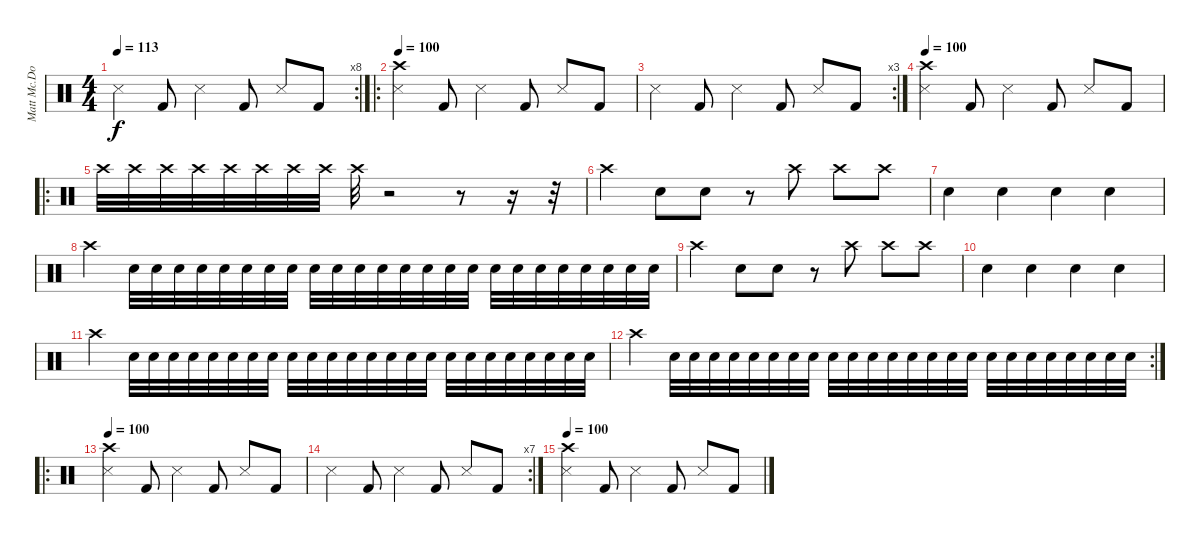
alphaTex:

\track ("Matt Mc.Donough" "Matt Mc.Do") {instrument percussion}
\staff {score}
\articulation defaults
\rc 8
\ts (4 4)
\tempo 113
\clef neutral
\ks c "Snare (side stick) 3".4{dy f} "Kick (hit) 2".8 "Snare (side stick) 3".4 "Kick (hit) 2".8 "Snare (side stick) 3".8 "Kick (hit) 2".8
|
\ro
\tempo 100
("Crash high (hit)" "Snare (side stick) 3").4 "Kick (hit) 2".8 "Snare (side stick) 3".4 "Kick (hit) 2".8 "Snare (side stick) 3".8 "Kick (hit) 2".8 |
\rc 3 "Snare (side stick) 3".4 "Kick (hit) 2".8 "Snare (side stick) 3".4 "Kick (hit) 2".8 "Snare (side stick) 3".8 "Kick (hit) 2".8
|
\tempo 100
("Crash high (hit)" "Snare (side stick) 3").4 "Kick (hit) 2".8 "Snare (side stick) 3".4 "Kick (hit) 2".8 "Snare (side stick) 3".8 "Kick (hit) 2".8 |
\ro "Crash high (hit)".32 "Crash high (hit)".32 "Crash high (hit)".32 "Crash high (hit)".32 "Crash high (hit)".32 "Crash high (hit)".32 "Crash high (hit)".32 "Crash high (hit)".32 "Crash high (hit)".32
r.2 r.8 r.16 r.32 |
"Crash high (hit)".4 "Electric Snare (hit)".8 "Electric Snare (hit)".8 r.8 "Crash high (hit)".8 "Crash high (hit)".8 "Crash high (hit)".8 |
"Electric Snare (hit)".4 "Electric Snare (hit)".4 "Electric Snare (hit)".4 "Electric Snare (hit)".4 |
"Crash high (hit)".4 "Electric Snare (hit)".32 "Electric Snare (hit)".32 "Electric Snare (hit)".32 "Electric Snare (hit)".32 "Electric Snare (hit)".32 "Electric Snare (hit)".32 "Electric Snare (hit)".32 "Electric Snare (hit)".32 "Electric Snare (hit)".32 "Electric Snare (hit)".32 "Electric Snare (hit)".32 "Electric Snare (hit)".32 "Electric Snare (hit)".32 "Electric Snare (hit)".32 "Electric Snare (hit)".32 "Electric Snare (hit)".32 "Electric Snare (hit)".32 "Electric Snare (hit)".32 "Electric Snare (hit)".32 "Electric Snare (hit)".32 "Electric Snare (hit)".32 "Electric Snare (hit)".32 "Electric Snare (hit)".32 "Electric Snare (hit)".32 |
"Crash high (hit)".4 "Electric Snare (hit)".8 "Electric Snare (hit)".8 r.8 "Crash high (hit)".8 "Crash high (hit)".8 "Crash high (hit)".8 |
"Electric Snare (hit)".4 "Electric Snare (hit)".4 "Electric Snare (hit)".4 "Electric Snare (hit)".4 |
"Crash high (hit)".4 "Electric Snare (hit)".32 "Electric Snare (hit)".32 "Electric Snare (hit)".32 "Electric Snare (hit)".32 "Electric Snare (hit)".32 "Electric Snare (hit)".32 "Electric Snare (hit)".32 "Electric Snare (hit)".32 "Electric Snare (hit)".32 "Electric Snare (hit)".32 "Electric Snare (hit)".32 "Electric Snare (hit)".32 "Electric Snare (hit)".32 "Electric Snare (hit)".32 "Electric Snare (hit)".32 "Electric Snare (hit)".32 "Electric Snare (hit)".32 "Electric Snare (hit)".32 "Electric Snare (hit)".32 "Electric Snare (hit)".32 "Electric Snare (hit)".32 "Electric Snare (hit)".32 "Electric Snare (hit)".32 "Electric Snare (hit)".32 |
\rc 2 "Crash high (hit)".4 "Electric Snare (hit)".32 "Electric Snare (hit)".32 "Electric Snare (hit)".32 "Electric Snare (hit)".32 "Electric Snare (hit)".32 "Electric Snare (hit)".32 "Electric Snare (hit)".32 "Electric Snare (hit)".32 "Electric Snare (hit)".32 "Electric Snare (hit)".32 "Electric Snare (hit)".32 "Electric Snare (hit)".32 "Electric Snare (hit)".32 "Electric Snare (hit)".32 "Electric Snare (hit)".32 "Electric Snare (hit)".32 "Electric Snare (hit)".32 "Electric Snare (hit)".32 "Electric Snare (hit)".32 "Electric Snare (hit)".32 "Electric Snare (hit)".32 "Electric Snare (hit)".32 "Electric Snare (hit)".32 "Electric Snare (hit)".32
|
\ro
\tempo 100
("Crash high (hit)" "Snare (side stick) 3").4 "Kick (hit) 2".8 "Snare (side stick) 3".4 "Kick (hit) 2".8 "Snare (side stick) 3".8 "Kick (hit) 2".8 |
\rc 7 "Snare (side stick) 3".4 "Kick (hit) 2".8 "Snare (side stick) 3".4 "Kick (hit) 2".8 "Snare (side stick) 3".8 "Kick (hit) 2".8
|
\tempo 100
("Crash high (hit)" "Snare (side stick) 3").4 "Kick (hit) 2".8 "Snare (side stick) 3".4 "Kick (hit) 2".8 "Snare (side stick) 3".8 "Kick (hit) 2".8
